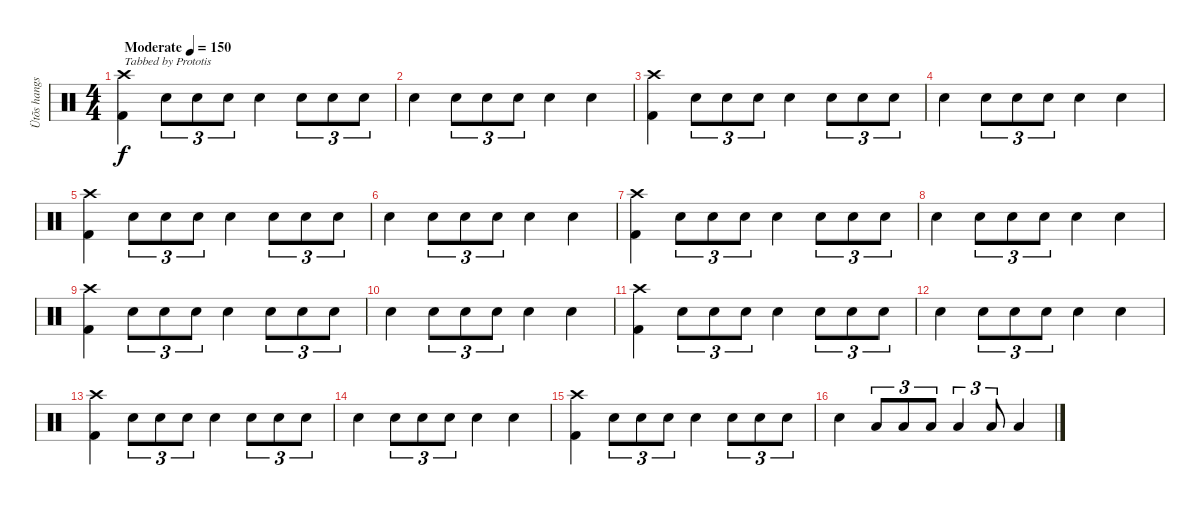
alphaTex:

\track ("Ütõs hangszer" "Ütõs hangs") {instrument percussion}
\staff {score}
\articulation defaults
\ts (4 4)
\tempo (150 "Moderate")
\clef neutral
\ks c
("Crash high (hit)" "Kick (hit) 2").4{txt "Tabbed by Prototis" dy f} "Electric Snare (hit)".8{tu (3 2)} "Electric Snare (hit)".8{tu (3 2)} "Electric Snare (hit)".8{tu (3 2)} "Electric Snare (hit)".4 "Electric Snare (hit)".8{tu (3 2)} "Electric Snare (hit)".8{tu (3 2)} "Electric Snare (hit)".8{tu (3 2)} |
"Electric Snare (hit)".4 "Electric Snare (hit)".8{tu (3 2)} "Electric Snare (hit)".8{tu (3 2)} "Electric Snare (hit)".8{tu (3 2)} "Electric Snare (hit)".4 "Electric Snare (hit)".4 |
("Crash high (hit)" "Kick (hit) 2").4 "Electric Snare (hit)".8{tu (3 2)} "Electric Snare (hit)".8{tu (3 2)} "Electric Snare (hit)".8{tu (3 2)} "Electric Snare (hit)".4 "Electric Snare (hit)".8{tu (3 2)} "Electric Snare (hit)".8{tu (3 2)} "Electric Snare (hit)".8{tu (3 2)} |
"Electric Snare (hit)".4 "Electric Snare (hit)".8{tu (3 2)} "Electric Snare (hit)".8{tu (3 2)} "Electric Snare (hit)".8{tu (3 2)} "Electric Snare (hit)".4 "Electric Snare (hit)".4 |
("Crash high (hit)" "Kick (hit) 2").4 "Electric Snare (hit)".8{tu (3 2)} "Electric Snare (hit)".8{tu (3 2)} "Electric Snare (hit)".8{tu (3 2)} "Electric Snare (hit)".4 "Electric Snare (hit)".8{tu (3 2)} "Electric Snare (hit)".8{tu (3 2)} "Electric Snare (hit)".8{tu (3 2)} |
"Electric Snare (hit)".4 "Electric Snare (hit)".8{tu (3 2)} "Electric Snare (hit)".8{tu (3 2)} "Electric Snare (hit)".8{tu (3 2)} "Electric Snare (hit)".4 "Electric Snare (hit)".4 |
("Crash high (hit)" "Kick (hit) 2").4 "Electric Snare (hit)".8{tu (3 2)} "Electric Snare (hit)".8{tu (3 2)} "Electric Snare (hit)".8{tu (3 2)} "Electric Snare (hit)".4 "Electric Snare (hit)".8{tu (3 2)} "Electric Snare (hit)".8{tu (3 2)} "Electric Snare (hit)".8{tu (3 2)} |
"Electric Snare (hit)".4 "Electric Snare (hit)".8{tu (3 2)} "Electric Snare (hit)".8{tu (3 2)} "Electric Snare (hit)".8{tu (3 2)} "Electric Snare (hit)".4 "Electric Snare (hit)".4 |
("Crash high (hit)" "Kick (hit) 2").4 "Electric Snare (hit)".8{tu (3 2)} "Electric Snare (hit)".8{tu (3 2)} "Electric Snare (hit)".8{tu (3 2)} "Electric Snare (hit)".4 "Electric Snare (hit)".8{tu (3 2)} "Electric Snare (hit)".8{tu (3 2)} "Electric Snare (hit)".8{tu (3 2)} |
"Electric Snare (hit)".4 "Electric Snare (hit)".8{tu (3 2)} "Electric Snare (hit)".8{tu (3 2)} "Electric Snare (hit)".8{tu (3 2)} "Electric Snare (hit)".4 "Electric Snare (hit)".4 |
("Crash high (hit)" "Kick (hit) 2").4 "Electric Snare (hit)".8{tu (3 2)} "Electric Snare (hit)".8{tu (3 2)} "Electric Snare (hit)".8{tu (3 2)} "Electric Snare (hit)".4 "Electric Snare (hit)".8{tu (3 2)} "Electric Snare (hit)".8{tu (3 2)} "Electric Snare (hit)".8{tu (3 2)} |
"Electric Snare (hit)".4 "Electric Snare (hit)".8{tu (3 2)} "Electric Snare (hit)".8{tu (3 2)} "Electric Snare (hit)".8{tu (3 2)} "Electric Snare (hit)".4 "Electric Snare (hit)".4 |
("Crash high (hit)" "Kick (hit) 2").4 "Electric Snare (hit)".8{tu (3 2)} "Electric Snare (hit)".8{tu (3 2)} "Electric Snare (hit)".8{tu (3 2)} "Electric Snare (hit)".4 "Electric Snare (hit)".8{tu (3 2)} "Electric Snare (hit)".8{tu (3 2)} "Electric Snare (hit)".8{tu (3 2)} |
"Electric Snare (hit)".4 "Electric Snare (hit)".8{tu (3 2)} "Electric Snare (hit)".8{tu (3 2)} "Electric Snare (hit)".8{tu (3 2)} "Electric Snare (hit)".4 "Electric Snare (hit)".4 |
("Crash high (hit)" "Kick (hit) 2").4 "Electric Snare (hit)".8{tu (3 2)} "Electric Snare (hit)".8{tu (3 2)} "Electric Snare (hit)".8{tu (3 2)} "Electric Snare (hit)".4 "Electric Snare (hit)".8{tu (3 2)} "Electric Snare (hit)".8{tu (3 2)} "Electric Snare (hit)".8{tu (3 2)} |
"Electric Snare (hit)".4 "Low Tom (hit)".8{tu (3 2)} "Low Tom (hit)".8{tu (3 2)} "Low Tom (hit)".8{tu (3 2)} "Low Tom (hit)".4{tu (3 2)} "Low Tom (hit)".8{tu (3 2)} "Low Tom (hit)".4
